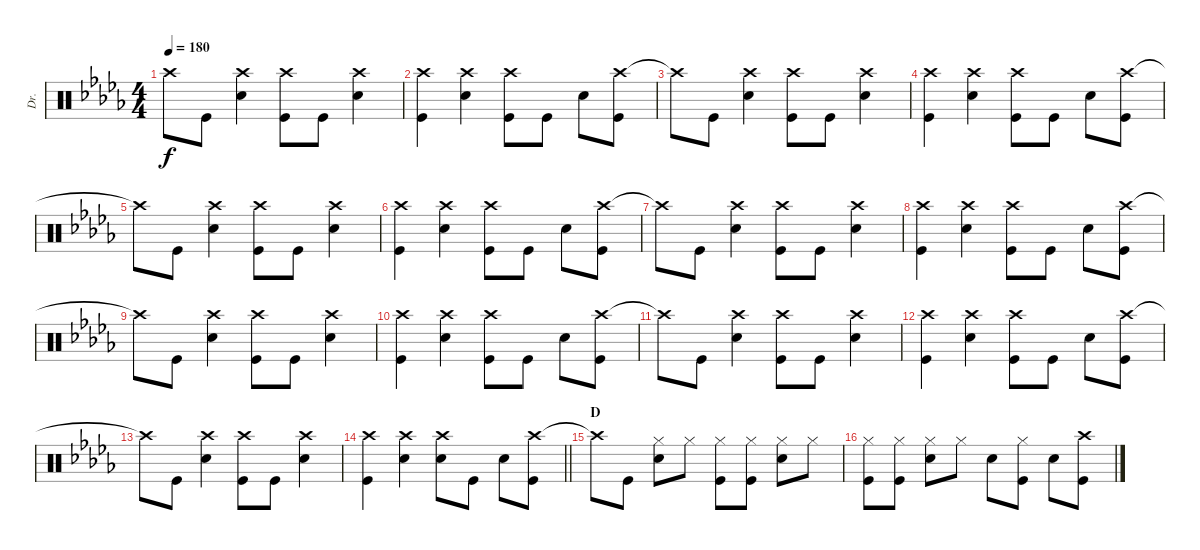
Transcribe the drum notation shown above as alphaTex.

\track ("Dr." "Dr.") {instrument percussion}
\staff {score}
\articulation defaults
\ts (4 4)
\tempo 180
\clef neutral
\ks db "Crash high (hit)"{t}.8{dy f} "Kick (hit)".8
("Crash high (hit)" "Snare (hit) 2").4 ("Crash high (hit)" "Kick (hit)").8 "Kick (hit)".8 ("Crash high (hit)" "Snare (hit) 2").4 |
("Crash high (hit)" "Kick (hit)").4 ("Crash high (hit)" "Snare (hit) 2").4 ("Crash high (hit)" "Kick (hit)").8 "Kick (hit)".8 "Snare (hit) 2".8 ("Crash high (hit)" "Kick (hit)").8 |
"Crash high (hit)"{t}.8 "Kick (hit)".8 ("Crash high (hit)" "Snare (hit) 2").4 ("Crash high (hit)" "Kick (hit)").8 "Kick (hit)".8 ("Crash high (hit)" "Snare (hit) 2").4 |
("Crash high (hit)" "Kick (hit)").4 ("Crash high (hit)" "Snare (hit) 2").4 ("Crash high (hit)" "Kick (hit)").8 "Kick (hit)".8 "Snare (hit) 2".8 ("Crash high (hit)" "Kick (hit)").8 |
"Crash high (hit)"{t}.8 "Kick (hit)".8 ("Crash high (hit)" "Snare (hit) 2").4 ("Crash high (hit)" "Kick (hit)").8 "Kick (hit)".8 ("Crash high (hit)" "Snare (hit) 2").4 |
("Crash high (hit)" "Kick (hit)").4 ("Crash high (hit)" "Snare (hit) 2").4 ("Crash high (hit)" "Kick (hit)").8 "Kick (hit)".8 "Snare (hit) 2".8 ("Crash high (hit)" "Kick (hit)").8 |
"Crash high (hit)"{t}.8 "Kick (hit)".8 ("Crash high (hit)" "Snare (hit) 2").4 ("Crash high (hit)" "Kick (hit)").8 "Kick (hit)".8 ("Crash high (hit)" "Snare (hit) 2").4 |
("Crash high (hit)" "Kick (hit)").4 ("Crash high (hit)" "Snare (hit) 2").4 ("Crash high (hit)" "Kick (hit)").8 "Kick (hit)".8 "Snare (hit) 2".8 ("Crash high (hit)" "Kick (hit)").8 |
"Crash high (hit)"{t}.8 "Kick (hit)".8 ("Crash high (hit)" "Snare (hit) 2").4 ("Crash high (hit)" "Kick (hit)").8 "Kick (hit)".8 ("Crash high (hit)" "Snare (hit) 2").4 |
("Crash high (hit)" "Kick (hit)").4 ("Crash high (hit)" "Snare (hit) 2").4 ("Crash high (hit)" "Kick (hit)").8 "Kick (hit)".8 "Snare (hit) 2".8 ("Crash high (hit)" "Kick (hit)").8 |
"Crash high (hit)"{t}.8 "Kick (hit)".8 ("Crash high (hit)" "Snare (hit) 2").4 ("Crash high (hit)" "Kick (hit)").8 "Kick (hit)".8 ("Crash high (hit)" "Snare (hit) 2").4 |
("Crash high (hit)" "Kick (hit)").4 ("Crash high (hit)" "Snare (hit) 2").4 ("Crash high (hit)" "Kick (hit)").8 "Kick (hit)".8 "Snare (hit) 2".8 ("Crash high (hit)" "Kick (hit)").8 |
"Crash high (hit)"{t}.8 "Kick (hit)".8 ("Crash high (hit)" "Snare (hit) 2").4 ("Crash high (hit)" "Kick (hit)").8 "Kick (hit)".8 ("Crash high (hit)" "Snare (hit) 2").4 |
\barLineRight lightlight
("Crash high (hit)" "Kick (hit)").4 ("Crash high (hit)" "Snare (hit) 2").4 ("Crash high (hit)" "Snare (hit) 2").8 "Kick (hit)".8 "Snare (hit) 2".8 ("Crash high (hit)" "Kick (hit)").8 |
\section ("" "D")
"Crash high (hit)"{t}.8 "Kick (hit)".8 ("Hi-Hat (closed)" "Snare (hit) 2").8 "Hi-Hat (closed)".8 ("Hi-Hat (closed)" "Kick (hit)").8 ("Hi-Hat (closed)" "Kick (hit)").8 ("Hi-Hat (closed)" "Snare (hit) 2").8 "Hi-Hat (closed)".8 |
("Hi-Hat (closed)" "Kick (hit)").8 ("Hi-Hat (closed)" "Kick (hit)").8 ("Hi-Hat (closed)" "Snare (hit) 2").8 "Hi-Hat (closed)".8 "Snare (hit) 2".8 ("Hi-Hat (closed)" "Kick (hit)").8 "Snare (hit) 2".8 ("Crash high (hit)" "Kick (hit)").8
